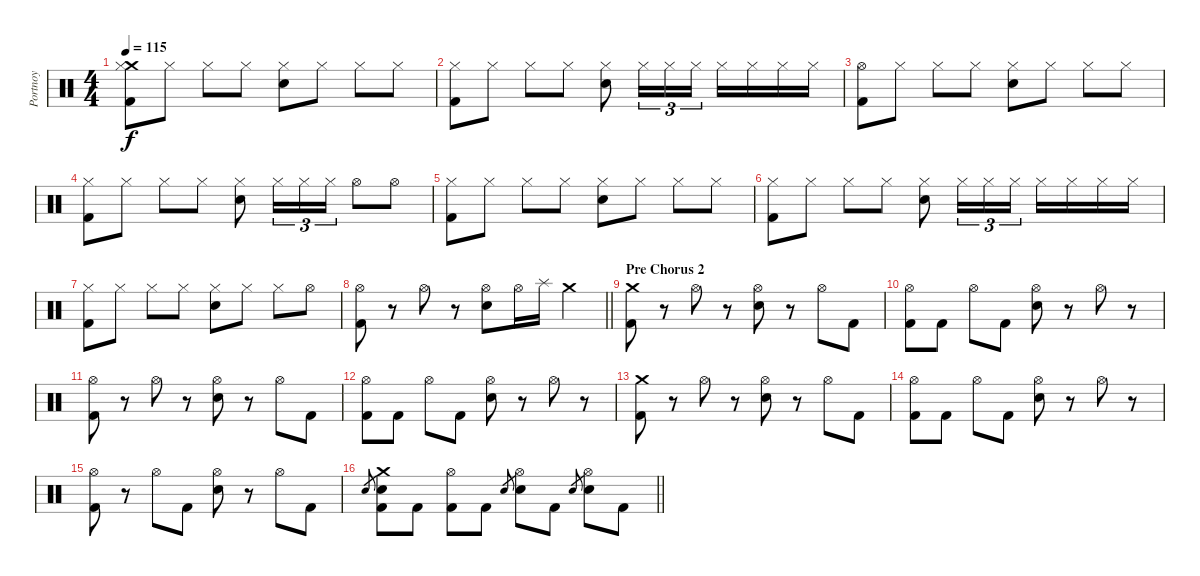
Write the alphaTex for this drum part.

\track ("Portnoy" "Portnoy") {instrument percussion}
\staff {score}
\articulation defaults
\ts (4 4)
\tempo 115
\clef neutral
\ks c
("Crash medium (hit)" "Hi-Hat (closed)" "Kick (hit) 2").8{dy f} "Hi-Hat (closed)".8 "Hi-Hat (closed)".8 "Hi-Hat (closed)".8 ("Hi-Hat (closed)" "Snare (hit) 2").8 "Hi-Hat (closed)".8 "Hi-Hat (closed)".8 "Hi-Hat (closed)".8 |
("Hi-Hat (closed)" "Kick (hit) 2").8 "Hi-Hat (closed)".8 "Hi-Hat (closed)".8 "Hi-Hat (closed)".8 ("Hi-Hat (closed)" "Snare (hit) 2").8 "Hi-Hat (closed)".16{tu (3 2)} "Hi-Hat (closed)".16{tu (3 2)} "Hi-Hat (closed)".16{tu (3 2)} "Hi-Hat (closed)".16 "Hi-Hat (closed)".16 "Hi-Hat (closed)".16 "Hi-Hat (closed)".16 |
("Hi-Hat (open)" "Kick (hit) 2").8 "Hi-Hat (closed)".8 "Hi-Hat (closed)".8 "Hi-Hat (closed)".8 ("Hi-Hat (closed)" "Snare (hit) 2").8 "Hi-Hat (closed)".8 "Hi-Hat (closed)".8 "Hi-Hat (closed)".8 |
("Hi-Hat (closed)" "Kick (hit) 2").8 "Hi-Hat (closed)".8 "Hi-Hat (closed)".8 "Hi-Hat (closed)".8 ("Hi-Hat (closed)" "Snare (hit) 2").8 "Hi-Hat (closed)".16{tu (3 2)} "Hi-Hat (closed)".16{tu (3 2)} "Hi-Hat (closed)".16{tu (3 2)} "Hi-Hat (open)".8 "Hi-Hat (open)".8 |
("Hi-Hat (closed)" "Kick (hit) 2").8 "Hi-Hat (closed)".8 "Hi-Hat (closed)".8 "Hi-Hat (closed)".8 ("Hi-Hat (closed)" "Snare (hit) 2").8 "Hi-Hat (closed)".8 "Hi-Hat (closed)".8 "Hi-Hat (closed)".8 |
("Hi-Hat (closed)" "Kick (hit) 2").8 "Hi-Hat (closed)".8 "Hi-Hat (closed)".8 "Hi-Hat (closed)".8 ("Hi-Hat (closed)" "Snare (hit) 2").8 "Hi-Hat (closed)".16{tu (3 2)} "Hi-Hat (closed)".16{tu (3 2)} "Hi-Hat (closed)".16{tu (3 2)} "Hi-Hat (closed)".16 "Hi-Hat (closed)".16 "Hi-Hat (closed)".16 "Hi-Hat (closed)".16 |
("Hi-Hat (closed)" "Kick (hit) 2").8 "Hi-Hat (closed)".8 "Hi-Hat (closed)".8 "Hi-Hat (closed)".8 ("Hi-Hat (closed)" "Snare (hit) 2").8 "Hi-Hat (closed)".8 "Hi-Hat (closed)".8 "Hi-Hat (open)".8 |
\barLineRight lightlight
("Hi-Hat (open)" "Kick (hit) 2").8 r.8 "Hi-Hat (open)".8 r.8 ("Hi-Hat (open)" "Snare (hit) 2").8 "Hi-Hat (open)".16 "Splash (hit)".16 "Crash medium (hit)".4 |
\section ("" "Pre Chorus 2")
("Crash medium (hit)" "Kick (hit) 2").8 r.8 "Hi-Hat (open)".8 r.8 ("Hi-Hat (open)" "Snare (hit) 2").8 r.8 "Hi-Hat (open)".8 "Kick (hit) 2".8 |
("Hi-Hat (open)" "Kick (hit) 2").8 "Kick (hit) 2".8 "Hi-Hat (open)".8 "Kick (hit) 2".8 ("Hi-Hat (open)" "Snare (hit) 2").8 r.8 "Hi-Hat (open)".8 r.8 |
("Hi-Hat (open)" "Kick (hit) 2").8 r.8 "Hi-Hat (open)".8 r.8 ("Hi-Hat (open)" "Snare (hit) 2").8 r.8 "Hi-Hat (open)".8 "Kick (hit) 2".8 |
("Hi-Hat (open)" "Kick (hit) 2").8 "Kick (hit) 2".8 "Hi-Hat (open)".8 "Kick (hit) 2".8 ("Hi-Hat (open)" "Snare (hit) 2").8 r.8 "Hi-Hat (open)".8 r.8 |
("Crash medium (hit)" "Kick (hit) 2").8 r.8 "Hi-Hat (open)".8 r.8 ("Hi-Hat (open)" "Snare (hit) 2").8 r.8 "Hi-Hat (open)".8 "Kick (hit) 2".8 |
("Hi-Hat (open)" "Kick (hit) 2").8 "Kick (hit) 2".8 "Hi-Hat (open)".8 "Kick (hit) 2".8 ("Hi-Hat (open)" "Snare (hit) 2").8 r.8 "Hi-Hat (open)".8 r.8 |
("Hi-Hat (open)" "Kick (hit) 2").8 r.8 "Hi-Hat (open)".8 "Kick (hit) 2".8 ("Hi-Hat (open)" "Snare (hit) 2").8 r.8 "Hi-Hat (open)".8 "Kick (hit) 2".8 |
\barLineRight lightlight "Snare (hit) 2".8{gr}
("Crash medium (hit)" "Snare (hit) 2" "Kick (hit) 2").8 "Kick (hit) 2".8 ("Hi-Hat (open)" "Kick (hit) 2").8 "Kick (hit) 2".8 "Snare (hit) 2".8{gr} ("Hi-Hat (open)" "Snare (hit) 2").8 "Kick (hit) 2".8 "Snare (hit) 2".8{gr} ("Hi-Hat (open)" "Snare (hit) 2").8 "Kick (hit) 2".8
